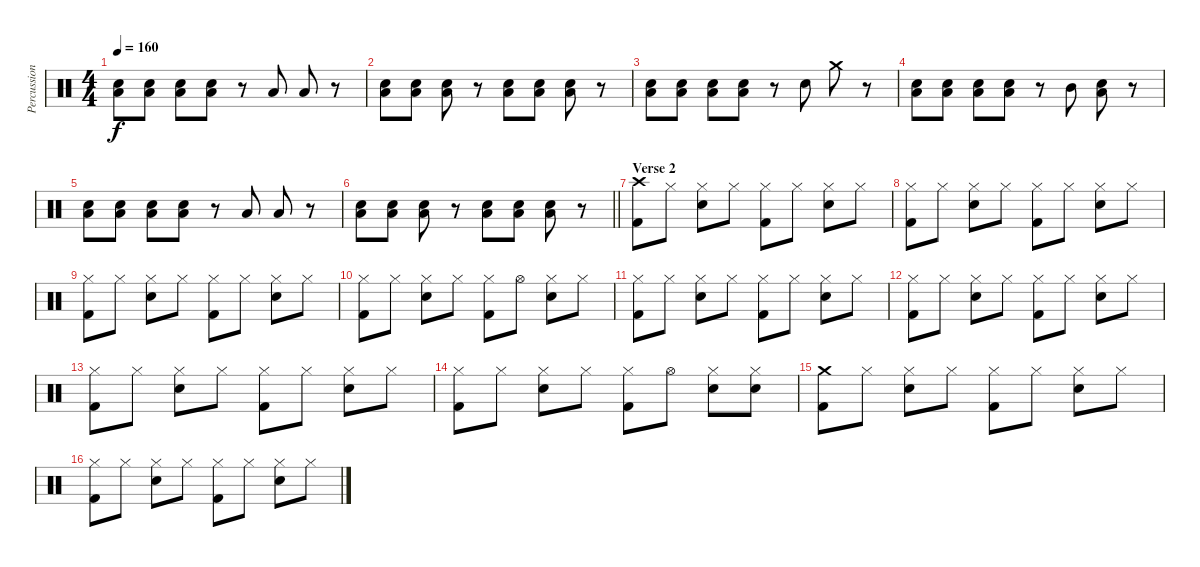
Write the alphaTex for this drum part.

\track ("Percussion" "Percussion") {instrument percussion}
\staff {score}
\articulation defaults
\ts (4 4)
\tempo 160
\clef neutral
\ks c
("Snare (hit) 2" "Low Floor Tom (hit)").8{dy f} ("Snare (hit) 2" "Low Floor Tom (hit)").8 ("Snare (hit) 2" "Low Floor Tom (hit)").8 ("Snare (hit) 2" "Low Floor Tom (hit)").8 r.8 "Low Floor Tom (hit)".8 "Low Floor Tom (hit)".8 r.8 |
("Snare (hit) 2" "Low Floor Tom (hit)").8 ("Snare (hit) 2" "Low Floor Tom (hit)").8 ("Snare (hit) 2" "Low Floor Tom (hit)").8 r.8 ("Snare (hit) 2" "Low Floor Tom (hit)").8 ("Snare (hit) 2" "Low Floor Tom (hit)").8 ("Snare (hit) 2" "Low Floor Tom (hit)").8 r.8 |
("Snare (hit) 2" "Low Floor Tom (hit)").8 ("Snare (hit) 2" "Low Floor Tom (hit)").8 ("Snare (hit) 2" "Low Floor Tom (hit)").8 ("Snare (hit) 2" "Low Floor Tom (hit)").8 r.8 "Snare (hit) 2".8 "Crash medium (hit)".8 r.8 |
("Snare (hit) 2" "Low Floor Tom (hit)").8 ("Snare (hit) 2" "Low Floor Tom (hit)").8 ("Snare (hit) 2" "Low Floor Tom (hit)").8 ("Snare (hit) 2" "Low Floor Tom (hit)").8 r.8 "Mid Tom (hit)".8 ("Snare (hit) 2" "Low Floor Tom (hit)").8 r.8 |
("Snare (hit) 2" "Low Floor Tom (hit)").8 ("Snare (hit) 2" "Low Floor Tom (hit)").8 ("Snare (hit) 2" "Low Floor Tom (hit)").8 ("Snare (hit) 2" "Low Floor Tom (hit)").8 r.8 "Low Floor Tom (hit)".8 "Low Floor Tom (hit)".8 r.8 |
\barLineRight lightlight
("Snare (hit) 2" "Low Floor Tom (hit)").8 ("Snare (hit) 2" "Low Floor Tom (hit)").8 ("Snare (hit) 2" "Low Floor Tom (hit)").8 r.8 ("Snare (hit) 2" "Low Floor Tom (hit)").8 ("Snare (hit) 2" "Low Floor Tom (hit)").8 ("Snare (hit) 2" "Low Floor Tom (hit)").8 r.8 |
\section ("" "Verse 2")
("Crash high (hit)" "Kick (hit) 2").8 "Hi-Hat (closed)".8 ("Hi-Hat (closed)" "Snare (hit) 2").8 "Hi-Hat (closed)".8 ("Hi-Hat (closed)" "Kick (hit) 2").8 "Hi-Hat (closed)".8 ("Hi-Hat (closed)" "Snare (hit) 2").8 "Hi-Hat (closed)".8 |
("Hi-Hat (closed)" "Kick (hit) 2").8 "Hi-Hat (closed)".8 ("Hi-Hat (closed)" "Snare (hit) 2").8 "Hi-Hat (closed)".8 ("Hi-Hat (closed)" "Kick (hit) 2").8 "Hi-Hat (closed)".8 ("Hi-Hat (closed)" "Snare (hit) 2").8 "Hi-Hat (closed)".8 |
("Hi-Hat (closed)" "Kick (hit) 2").8 "Hi-Hat (closed)".8 ("Hi-Hat (closed)" "Snare (hit) 2").8 "Hi-Hat (closed)".8 ("Hi-Hat (closed)" "Kick (hit) 2").8 "Hi-Hat (closed)".8 ("Hi-Hat (closed)" "Snare (hit) 2").8 "Hi-Hat (closed)".8 |
("Hi-Hat (closed)" "Kick (hit) 2").8 "Hi-Hat (closed)".8 ("Hi-Hat (closed)" "Snare (hit) 2").8 "Hi-Hat (closed)".8 ("Hi-Hat (closed)" "Kick (hit) 2").8 "Hi-Hat (open)".8 ("Hi-Hat (closed)" "Snare (hit) 2").8 "Hi-Hat (closed)".8 |
("Hi-Hat (closed)" "Kick (hit) 2").8 "Hi-Hat (closed)".8 ("Hi-Hat (closed)" "Snare (hit) 2").8 "Hi-Hat (closed)".8 ("Hi-Hat (closed)" "Kick (hit) 2").8 "Hi-Hat (closed)".8 ("Hi-Hat (closed)" "Snare (hit) 2").8 "Hi-Hat (closed)".8 |
("Hi-Hat (closed)" "Kick (hit) 2").8 "Hi-Hat (closed)".8 ("Hi-Hat (closed)" "Snare (hit) 2").8 "Hi-Hat (closed)".8 ("Hi-Hat (closed)" "Kick (hit) 2").8 "Hi-Hat (closed)".8 ("Hi-Hat (closed)" "Snare (hit) 2").8 "Hi-Hat (closed)".8 |
("Hi-Hat (closed)" "Kick (hit) 2").8 "Hi-Hat (closed)".8 ("Hi-Hat (closed)" "Snare (hit) 2").8 "Hi-Hat (closed)".8 ("Hi-Hat (closed)" "Kick (hit) 2").8 "Hi-Hat (closed)".8 ("Hi-Hat (closed)" "Snare (hit) 2").8 "Hi-Hat (closed)".8 |
("Hi-Hat (closed)" "Kick (hit) 2").8 "Hi-Hat (closed)".8 ("Hi-Hat (closed)" "Snare (hit) 2").8 "Hi-Hat (closed)".8 ("Hi-Hat (closed)" "Kick (hit) 2").8 "Hi-Hat (open)".8 ("Hi-Hat (closed)" "Snare (hit) 2").8 ("Hi-Hat (closed)" "Snare (hit) 2").8 |
("Crash medium (hit)" "Kick (hit) 2").8 "Hi-Hat (closed)".8 ("Hi-Hat (closed)" "Snare (hit) 2").8 "Hi-Hat (closed)".8 ("Hi-Hat (closed)" "Kick (hit) 2").8 "Hi-Hat (closed)".8 ("Hi-Hat (closed)" "Snare (hit) 2").8 "Hi-Hat (closed)".8 |
("Hi-Hat (closed)" "Kick (hit) 2").8 "Hi-Hat (closed)".8 ("Hi-Hat (closed)" "Snare (hit) 2").8 "Hi-Hat (closed)".8 ("Hi-Hat (closed)" "Kick (hit) 2").8 "Hi-Hat (closed)".8 ("Hi-Hat (closed)" "Snare (hit) 2").8 "Hi-Hat (closed)".8
